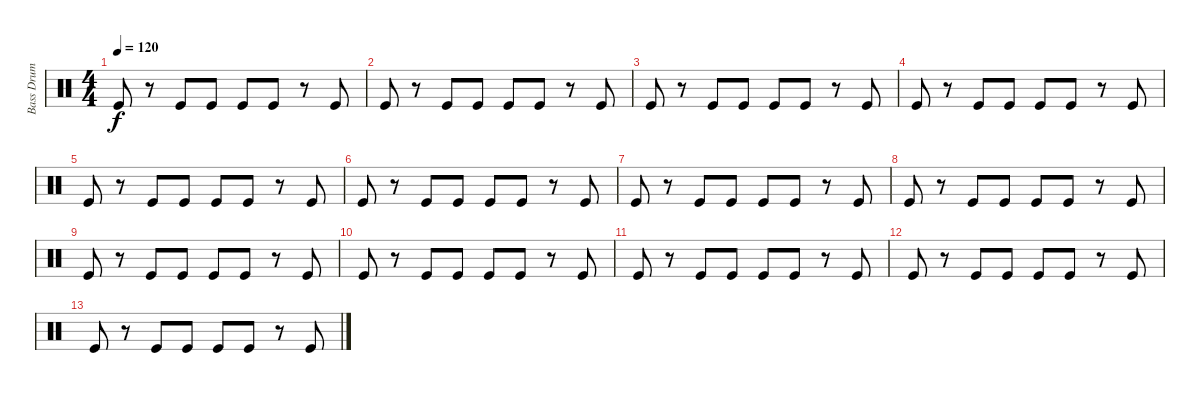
\track ("Bass Drum           " "Bass Drum ") {instrument percussion}
\staff {score}
\articulation defaults
\ts (4 4)
\tempo 120
\clef neutral
\ks c "Kick (hit)".8{dy f}
r.8 "Kick (hit)".8 "Kick (hit)".8 "Kick (hit)".8 "Kick (hit)".8 r.8 "Kick (hit)".8 |
"Kick (hit)".8 r.8 "Kick (hit)".8 "Kick (hit)".8 "Kick (hit)".8 "Kick (hit)".8 r.8 "Kick (hit)".8 |
"Kick (hit)".8 r.8 "Kick (hit)".8 "Kick (hit)".8 "Kick (hit)".8 "Kick (hit)".8 r.8 "Kick (hit)".8 |
"Kick (hit)".8{volume 12} r.8 "Kick (hit)".8{volume 12} "Kick (hit)".8{volume 12} "Kick (hit)".8{volume 12} "Kick (hit)".8{volume 12} r.8 "Kick (hit)".8{volume 11} |
"Kick (hit)".8{volume 11} r.8 "Kick (hit)".8{volume 11} "Kick (hit)".8{volume 11} "Kick (hit)".8{volume 10} "Kick (hit)".8{volume 10} r.8 "Kick (hit)".8{volume 10} |
"Kick (hit)".8{volume 10} r.8 "Kick (hit)".8{volume 10} "Kick (hit)".8{volume 9} "Kick (hit)".8{volume 9} "Kick (hit)".8{volume 9} r.8 "Kick (hit)".8{volume 9} |
"Kick (hit)".8{volume 9} r.8 "Kick (hit)".8{volume 8} "Kick (hit)".8{volume 8} "Kick (hit)".8{volume 8} "Kick (hit)".8{volume 8} r.8 "Kick (hit)".8{volume 8} |
"Kick (hit)".8{volume 7} r.8 "Kick (hit)".8{volume 7} "Kick (hit)".8{volume 7} "Kick (hit)".8{volume 7} "Kick (hit)".8{volume 7} r.8 "Kick (hit)".8{volume 6} |
"Kick (hit)".8{volume 6} r.8 "Kick (hit)".8{volume 6} "Kick (hit)".8{volume 6} "Kick (hit)".8{volume 6} "Kick (hit)".8{volume 5} r.8 "Kick (hit)".8{volume 5} |
"Kick (hit)".8{volume 5} r.8 "Kick (hit)".8{volume 5} "Kick (hit)".8{volume 4} "Kick (hit)".8{volume 4} "Kick (hit)".8{volume 4} r.8 "Kick (hit)".8{volume 4} |
"Kick (hit)".8{volume 4} r.8 "Kick (hit)".8{volume 3} "Kick (hit)".8{volume 3} "Kick (hit)".8{volume 3} "Kick (hit)".8{volume 3} r.8 "Kick (hit)".8{volume 3} |
"Kick (hit)".8{volume 2} r.8 "Kick (hit)".8{volume 2} "Kick (hit)".8{volume 2} "Kick (hit)".8{volume 2} "Kick (hit)".8{volume 2} r.8 "Kick (hit)".8{volume 1} |
"Kick (hit)".8{volume 1} r.8 "Kick (hit)".8{volume 1} "Kick (hit)".8{volume 1} "Kick (hit)".8{volume 0} "Kick (hit)".8{volume 0} r.8 "Kick (hit)".8{volume 0}
